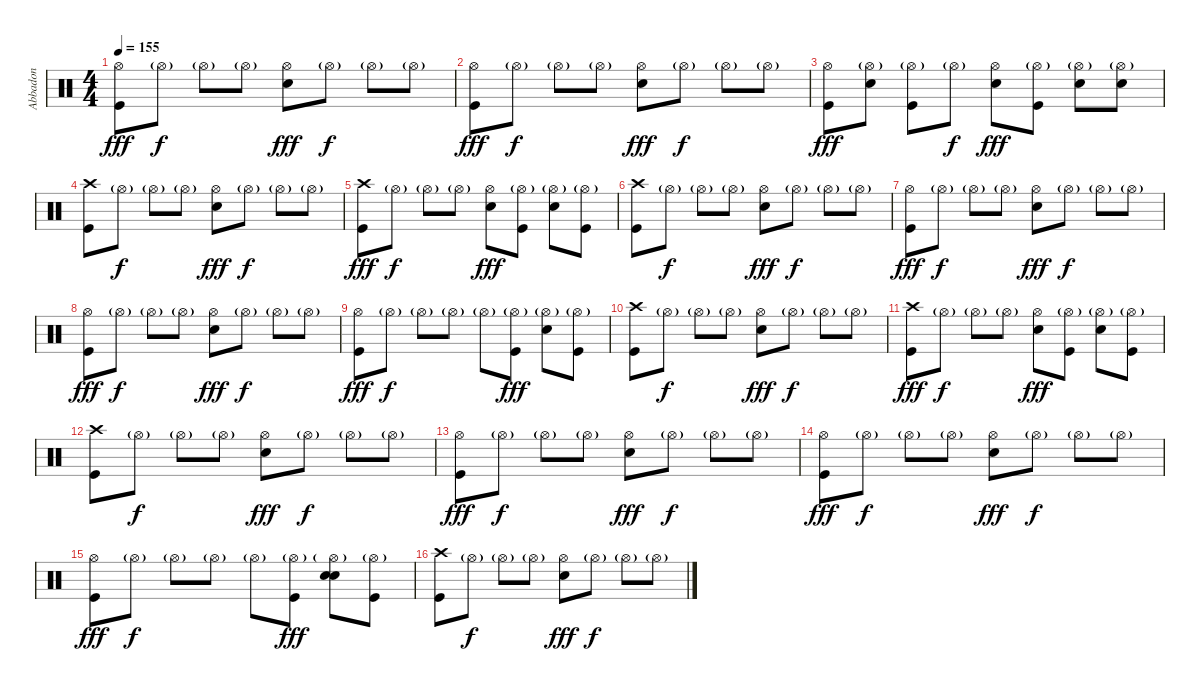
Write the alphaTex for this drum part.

\track ("Abbadon" "Abbadon") {instrument percussion}
\staff {score}
\articulation defaults
\ts (4 4)
\tempo 155
\clef neutral
\ks c
("Hi-Hat (open)" "Kick (hit)").8{dy fff} "Hi-Hat (open)"{g}.8{dy f} "Hi-Hat (open)"{g}.8 "Hi-Hat (open)"{g}.8 ("Hi-Hat (open)" "Electric Snare (hit)").8{dy fff} "Hi-Hat (open)"{g}.8{dy f} "Hi-Hat (open)"{g}.8 "Hi-Hat (open)"{g}.8 |
("Hi-Hat (open)" "Kick (hit)").8{dy fff} "Hi-Hat (open)"{g}.8{dy f} "Hi-Hat (open)"{g}.8 "Hi-Hat (open)"{g}.8 ("Hi-Hat (open)" "Electric Snare (hit)").8{dy fff} "Hi-Hat (open)"{g}.8{dy f} "Hi-Hat (open)"{g}.8 "Hi-Hat (open)"{g}.8 |
("Hi-Hat (open)" "Kick (hit)").8{dy fff} ("Hi-Hat (open)"{g} "Electric Snare (hit)").8 ("Hi-Hat (open)"{g} "Kick (hit)").8 "Hi-Hat (open)"{g}.8{dy f} ("Hi-Hat (open)" "Electric Snare (hit)").8{dy fff} ("Hi-Hat (open)"{g} "Kick (hit)").8 ("Hi-Hat (open)"{g} "Electric Snare (hit)").8 ("Hi-Hat (open)"{g} "Electric Snare (hit)").8 |
("Crash high (hit)" "Kick (hit)").8 "Hi-Hat (open)"{g}.8{dy f} "Hi-Hat (open)"{g}.8 "Hi-Hat (open)"{g}.8 ("Hi-Hat (open)" "Electric Snare (hit)").8{dy fff} "Hi-Hat (open)"{g}.8{dy f} "Hi-Hat (open)"{g}.8 "Hi-Hat (open)"{g}.8 |
("Crash high (hit)" "Kick (hit)").8{dy fff} "Hi-Hat (open)"{g}.8{dy f} "Hi-Hat (open)"{g}.8 "Hi-Hat (open)"{g}.8 ("Hi-Hat (open)" "Electric Snare (hit)").8{dy fff} ("Hi-Hat (open)"{g} "Kick (hit)").8 ("Hi-Hat (open)"{g} "Electric Snare (hit)").8 ("Hi-Hat (open)"{g} "Kick (hit)").8 |
("Crash high (hit)" "Kick (hit)").8 "Hi-Hat (open)"{g}.8{dy f} "Hi-Hat (open)"{g}.8 "Hi-Hat (open)"{g}.8 ("Hi-Hat (open)" "Electric Snare (hit)").8{dy fff} "Hi-Hat (open)"{g}.8{dy f} "Hi-Hat (open)"{g}.8 "Hi-Hat (open)"{g}.8 |
("Hi-Hat (open)" "Kick (hit)").8{dy fff} "Hi-Hat (open)"{g}.8{dy f} "Hi-Hat (open)"{g}.8 "Hi-Hat (open)"{g}.8 ("Hi-Hat (open)" "Electric Snare (hit)").8{dy fff} "Hi-Hat (open)"{g}.8{dy f} "Hi-Hat (open)"{g}.8 "Hi-Hat (open)"{g}.8 |
("Hi-Hat (open)" "Kick (hit)").8{dy fff} "Hi-Hat (open)"{g}.8{dy f} "Hi-Hat (open)"{g}.8 "Hi-Hat (open)"{g}.8 ("Hi-Hat (open)" "Electric Snare (hit)").8{dy fff} "Hi-Hat (open)"{g}.8{dy f} "Hi-Hat (open)"{g}.8 "Hi-Hat (open)"{g}.8 |
("Hi-Hat (open)" "Kick (hit)").8{dy fff} "Hi-Hat (open)"{g}.8{dy f} "Hi-Hat (open)"{g}.8 "Hi-Hat (open)"{g}.8 "Hi-Hat (open)"{g}.8 ("Hi-Hat (open)"{g} "Kick (hit)").8{dy fff} ("Hi-Hat (open)"{g} "Electric Snare (hit)").8 ("Hi-Hat (open)"{g} "Kick (hit)").8 |
("Crash high (hit)" "Kick (hit)").8 "Hi-Hat (open)"{g}.8{dy f} "Hi-Hat (open)"{g}.8 "Hi-Hat (open)"{g}.8 ("Hi-Hat (open)" "Electric Snare (hit)").8{dy fff} "Hi-Hat (open)"{g}.8{dy f} "Hi-Hat (open)"{g}.8 "Hi-Hat (open)"{g}.8 |
("Crash high (hit)" "Kick (hit)").8{dy fff} "Hi-Hat (open)"{g}.8{dy f} "Hi-Hat (open)"{g}.8 "Hi-Hat (open)"{g}.8 ("Hi-Hat (open)" "Electric Snare (hit)").8{dy fff} ("Hi-Hat (open)"{g} "Kick (hit)").8 ("Hi-Hat (open)"{g} "Electric Snare (hit)").8 ("Hi-Hat (open)"{g} "Kick (hit)").8 |
("Crash high (hit)" "Kick (hit)").8 "Hi-Hat (open)"{g}.8{dy f} "Hi-Hat (open)"{g}.8 "Hi-Hat (open)"{g}.8 ("Hi-Hat (open)" "Electric Snare (hit)").8{dy fff} "Hi-Hat (open)"{g}.8{dy f} "Hi-Hat (open)"{g}.8 "Hi-Hat (open)"{g}.8 |
("Hi-Hat (open)" "Kick (hit)").8{dy fff} "Hi-Hat (open)"{g}.8{dy f} "Hi-Hat (open)"{g}.8 "Hi-Hat (open)"{g}.8 ("Hi-Hat (open)" "Electric Snare (hit)").8{dy fff} "Hi-Hat (open)"{g}.8{dy f} "Hi-Hat (open)"{g}.8 "Hi-Hat (open)"{g}.8 |
("Hi-Hat (open)" "Kick (hit)").8{dy fff} "Hi-Hat (open)"{g}.8{dy f} "Hi-Hat (open)"{g}.8 "Hi-Hat (open)"{g}.8 ("Hi-Hat (open)" "Electric Snare (hit)").8{dy fff} "Hi-Hat (open)"{g}.8{dy f} "Hi-Hat (open)"{g}.8 "Hi-Hat (open)"{g}.8 |
("Hi-Hat (open)" "Kick (hit)").8{dy fff} "Hi-Hat (open)"{g}.8{dy f} "Hi-Hat (open)"{g}.8 "Hi-Hat (open)"{g}.8 "Hi-Hat (open)"{g}.8 ("Hi-Hat (open)"{g} "Kick (hit)").8{dy fff} ("Hi-Hat (open)"{g} "Electric Snare (hit)" "Electric Snare (hit)").8{bd 480} ("Hi-Hat (open)"{g} "Kick (hit)").8 |
("Crash high (hit)" "Kick (hit)").8 "Hi-Hat (open)"{g}.8{dy f} "Hi-Hat (open)"{g}.8 "Hi-Hat (open)"{g}.8 ("Hi-Hat (open)" "Electric Snare (hit)").8{dy fff} "Hi-Hat (open)"{g}.8{dy f} "Hi-Hat (open)"{g}.8 "Hi-Hat (open)"{g}.8
